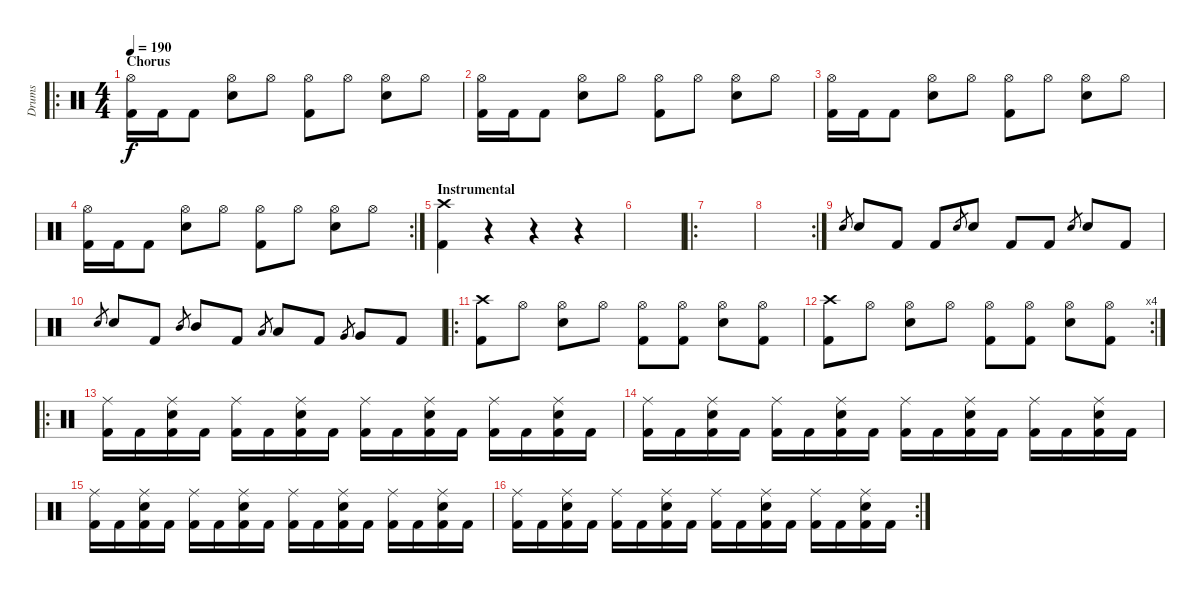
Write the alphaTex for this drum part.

\track ("Drums" "Drums") {instrument percussion}
\staff {score}
\articulation defaults
\ro
\ts (4 4)
\section ("" "Chorus")
\tempo 190
\clef neutral
\ks c
("Kick (hit) 2" "Hi-Hat (open)").16{dy f} "Kick (hit) 2".16 "Kick (hit) 2".8 ("Hi-Hat (open)" "Electric Snare (hit)").8 "Hi-Hat (open)".8 ("Hi-Hat (open)" "Kick (hit) 2").8 "Hi-Hat (open)".8 ("Hi-Hat (open)" "Electric Snare (hit)").8 "Hi-Hat (open)".8 |
("Kick (hit) 2" "Hi-Hat (open)").16 "Kick (hit) 2".16 "Kick (hit) 2".8 ("Hi-Hat (open)" "Electric Snare (hit)").8 "Hi-Hat (open)".8 ("Hi-Hat (open)" "Kick (hit) 2").8 "Hi-Hat (open)".8 ("Hi-Hat (open)" "Electric Snare (hit)").8 "Hi-Hat (open)".8 |
("Kick (hit) 2" "Hi-Hat (open)").16 "Kick (hit) 2".16 "Kick (hit) 2".8 ("Hi-Hat (open)" "Electric Snare (hit)").8 "Hi-Hat (open)".8 ("Hi-Hat (open)" "Kick (hit) 2").8 "Hi-Hat (open)".8 ("Hi-Hat (open)" "Electric Snare (hit)").8 "Hi-Hat (open)".8 |
\rc 2
("Kick (hit) 2" "Hi-Hat (open)").16 "Kick (hit) 2".16 "Kick (hit) 2".8 ("Hi-Hat (open)" "Electric Snare (hit)").8 "Hi-Hat (open)".8 ("Hi-Hat (open)" "Kick (hit) 2").8 "Hi-Hat (open)".8 ("Hi-Hat (open)" "Electric Snare (hit)").8 "Hi-Hat (open)".8 |
\section ("" "Instrumental")
("Crash high (hit)" "Kick (hit) 2").4 r.4 r.4 r.4 |
|
\ro
|
\rc 2
|
"Electric Snare (hit)".8{gr} "Electric Snare (hit)".8 "Kick (hit) 2".8 "Kick (hit) 2".8 "Electric Snare (hit)".8{gr} "Electric Snare (hit)".8 "Kick (hit) 2".8 "Kick (hit) 2".8 "Electric Snare (hit)".8{gr} "Electric Snare (hit)".8 "Kick (hit) 2".8 |
"Electric Snare (hit)".8{gr} "Electric Snare (hit)".8 "Kick (hit) 2".8 "Mid Tom (hit)".8{gr} "Mid Tom (hit)".8 "Kick (hit) 2".8 "Low Tom (hit)".8{gr} "Low Tom (hit)".8 "Kick (hit) 2".8 "Very Low Tom (hit)".8{gr} "Very Low Tom (hit)".8 "Kick (hit) 2".8 |
\ro
("Crash high (hit)" "Kick (hit) 2").8 "Hi-Hat (open)".8 ("Hi-Hat (open)" "Electric Snare (hit)").8 "Hi-Hat (open)".8 ("Hi-Hat (open)" "Kick (hit) 2").8 ("Hi-Hat (open)" "Kick (hit) 2").8 ("Hi-Hat (open)" "Electric Snare (hit)").8 ("Hi-Hat (open)" "Kick (hit) 2").8 |
\rc 4
("Crash high (hit)" "Kick (hit) 2").8 "Hi-Hat (open)".8 ("Hi-Hat (open)" "Electric Snare (hit)").8 "Hi-Hat (open)".8 ("Hi-Hat (open)" "Kick (hit) 2").8 ("Hi-Hat (open)" "Kick (hit) 2").8 ("Hi-Hat (open)" "Electric Snare (hit)").8 ("Hi-Hat (open)" "Kick (hit) 2").8 |
\ro
("Kick (hit) 2" "Ride (middle)").16 "Kick (hit) 2".16 ("Kick (hit) 2" "Ride (middle)" "Electric Snare (hit)").16 "Kick (hit) 2".16 ("Kick (hit) 2" "Ride (middle)").16 "Kick (hit) 2".16 ("Kick (hit) 2" "Ride (middle)" "Electric Snare (hit)").16 "Kick (hit) 2".16 ("Kick (hit) 2" "Ride (middle)").16 "Kick (hit) 2".16 ("Kick (hit) 2" "Ride (middle)" "Electric Snare (hit)").16 "Kick (hit) 2".16 ("Kick (hit) 2" "Ride (middle)").16 "Kick (hit) 2".16 ("Kick (hit) 2" "Ride (middle)" "Electric Snare (hit)").16 "Kick (hit) 2".16 |
("Kick (hit) 2" "Ride (middle)").16 "Kick (hit) 2".16 ("Kick (hit) 2" "Ride (middle)" "Electric Snare (hit)").16 "Kick (hit) 2".16 ("Kick (hit) 2" "Ride (middle)").16 "Kick (hit) 2".16 ("Kick (hit) 2" "Ride (middle)" "Electric Snare (hit)").16 "Kick (hit) 2".16 ("Kick (hit) 2" "Ride (middle)").16 "Kick (hit) 2".16 ("Kick (hit) 2" "Ride (middle)" "Electric Snare (hit)").16 "Kick (hit) 2".16 ("Kick (hit) 2" "Ride (middle)").16 "Kick (hit) 2".16 ("Kick (hit) 2" "Ride (middle)" "Electric Snare (hit)").16 "Kick (hit) 2".16 |
("Kick (hit) 2" "Ride (middle)").16 "Kick (hit) 2".16 ("Kick (hit) 2" "Ride (middle)" "Electric Snare (hit)").16 "Kick (hit) 2".16 ("Kick (hit) 2" "Ride (middle)").16 "Kick (hit) 2".16 ("Kick (hit) 2" "Ride (middle)" "Electric Snare (hit)").16 "Kick (hit) 2".16 ("Kick (hit) 2" "Ride (middle)").16 "Kick (hit) 2".16 ("Kick (hit) 2" "Ride (middle)" "Electric Snare (hit)").16 "Kick (hit) 2".16 ("Kick (hit) 2" "Ride (middle)").16 "Kick (hit) 2".16 ("Kick (hit) 2" "Ride (middle)" "Electric Snare (hit)").16 "Kick (hit) 2".16 |
\rc 2
("Kick (hit) 2" "Ride (middle)").16 "Kick (hit) 2".16 ("Kick (hit) 2" "Ride (middle)" "Electric Snare (hit)").16 "Kick (hit) 2".16 ("Kick (hit) 2" "Ride (middle)").16 "Kick (hit) 2".16 ("Kick (hit) 2" "Ride (middle)" "Electric Snare (hit)").16 "Kick (hit) 2".16 ("Kick (hit) 2" "Ride (middle)").16 "Kick (hit) 2".16 ("Kick (hit) 2" "Ride (middle)" "Electric Snare (hit)").16 "Kick (hit) 2".16 ("Kick (hit) 2" "Ride (middle)").16 "Kick (hit) 2".16 ("Kick (hit) 2" "Ride (middle)" "Electric Snare (hit)").16 "Kick (hit) 2".16
